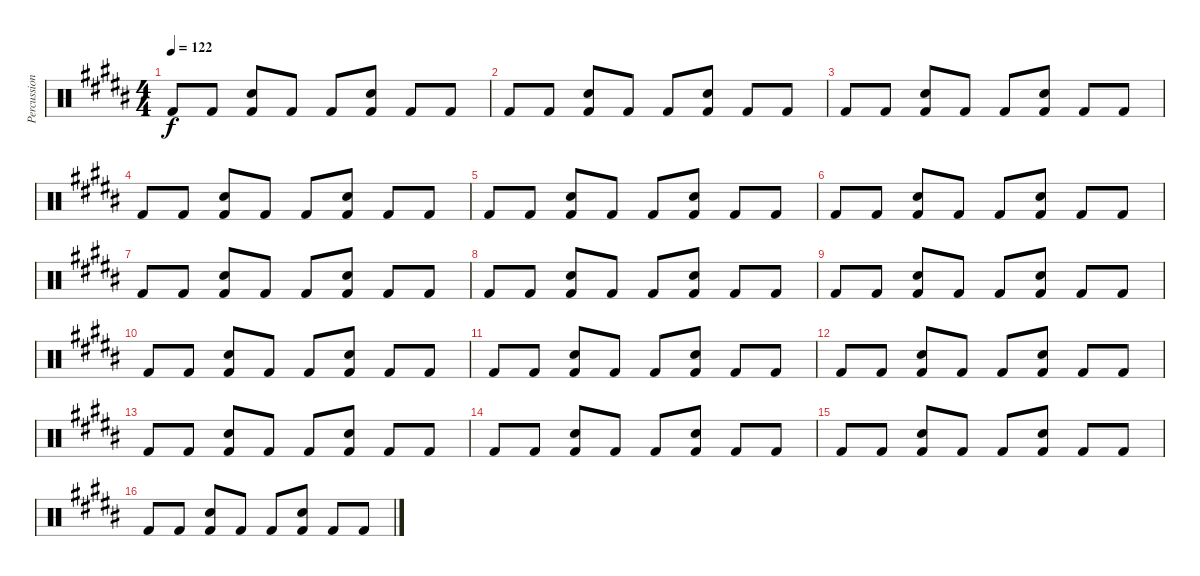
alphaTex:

\track ("Percussion" "Percussion") {instrument percussion}
\staff {score}
\articulation defaults
\ts (4 4)
\tempo 122
\clef neutral
\ks b "Kick (hit) 2".8{dy f} "Kick (hit) 2".8
("Kick (hit) 2" "Snare (hit) 2").8 "Kick (hit) 2".8 "Kick (hit) 2".8 ("Kick (hit) 2" "Snare (hit) 2").8 "Kick (hit) 2".8 "Kick (hit) 2".8 |
"Kick (hit) 2".8 "Kick (hit) 2".8 ("Kick (hit) 2" "Snare (hit) 2").8 "Kick (hit) 2".8 "Kick (hit) 2".8 ("Kick (hit) 2" "Snare (hit) 2").8 "Kick (hit) 2".8 "Kick (hit) 2".8 |
"Kick (hit) 2".8 "Kick (hit) 2".8 ("Kick (hit) 2" "Snare (hit) 2").8 "Kick (hit) 2".8 "Kick (hit) 2".8 ("Kick (hit) 2" "Snare (hit) 2").8 "Kick (hit) 2".8 "Kick (hit) 2".8 |
"Kick (hit) 2".8 "Kick (hit) 2".8 ("Kick (hit) 2" "Snare (hit) 2").8 "Kick (hit) 2".8 "Kick (hit) 2".8 ("Kick (hit) 2" "Snare (hit) 2").8 "Kick (hit) 2".8 "Kick (hit) 2".8 |
"Kick (hit) 2".8 "Kick (hit) 2".8 ("Kick (hit) 2" "Snare (hit) 2").8 "Kick (hit) 2".8 "Kick (hit) 2".8 ("Kick (hit) 2" "Snare (hit) 2").8 "Kick (hit) 2".8 "Kick (hit) 2".8 |
"Kick (hit) 2".8 "Kick (hit) 2".8 ("Kick (hit) 2" "Snare (hit) 2").8 "Kick (hit) 2".8 "Kick (hit) 2".8 ("Kick (hit) 2" "Snare (hit) 2").8 "Kick (hit) 2".8 "Kick (hit) 2".8 |
"Kick (hit) 2".8 "Kick (hit) 2".8 ("Kick (hit) 2" "Snare (hit) 2").8 "Kick (hit) 2".8 "Kick (hit) 2".8 ("Kick (hit) 2" "Snare (hit) 2").8 "Kick (hit) 2".8 "Kick (hit) 2".8 |
"Kick (hit) 2".8 "Kick (hit) 2".8 ("Kick (hit) 2" "Snare (hit) 2").8 "Kick (hit) 2".8 "Kick (hit) 2".8 ("Kick (hit) 2" "Snare (hit) 2").8 "Kick (hit) 2".8 "Kick (hit) 2".8 |
"Kick (hit) 2".8 "Kick (hit) 2".8 ("Kick (hit) 2" "Snare (hit) 2").8 "Kick (hit) 2".8 "Kick (hit) 2".8 ("Kick (hit) 2" "Snare (hit) 2").8 "Kick (hit) 2".8 "Kick (hit) 2".8 |
"Kick (hit) 2".8 "Kick (hit) 2".8 ("Kick (hit) 2" "Snare (hit) 2").8 "Kick (hit) 2".8 "Kick (hit) 2".8 ("Kick (hit) 2" "Snare (hit) 2").8 "Kick (hit) 2".8 "Kick (hit) 2".8 |
"Kick (hit) 2".8 "Kick (hit) 2".8 ("Kick (hit) 2" "Snare (hit) 2").8 "Kick (hit) 2".8 "Kick (hit) 2".8 ("Kick (hit) 2" "Snare (hit) 2").8 "Kick (hit) 2".8 "Kick (hit) 2".8 |
"Kick (hit) 2".8 "Kick (hit) 2".8 ("Kick (hit) 2" "Snare (hit) 2").8 "Kick (hit) 2".8 "Kick (hit) 2".8 ("Kick (hit) 2" "Snare (hit) 2").8 "Kick (hit) 2".8 "Kick (hit) 2".8 |
"Kick (hit) 2".8 "Kick (hit) 2".8 ("Kick (hit) 2" "Snare (hit) 2").8 "Kick (hit) 2".8 "Kick (hit) 2".8 ("Kick (hit) 2" "Snare (hit) 2").8 "Kick (hit) 2".8 "Kick (hit) 2".8 |
"Kick (hit) 2".8 "Kick (hit) 2".8 ("Kick (hit) 2" "Snare (hit) 2").8 "Kick (hit) 2".8 "Kick (hit) 2".8 ("Kick (hit) 2" "Snare (hit) 2").8 "Kick (hit) 2".8 "Kick (hit) 2".8 |
"Kick (hit) 2".8 "Kick (hit) 2".8 ("Kick (hit) 2" "Snare (hit) 2").8 "Kick (hit) 2".8 "Kick (hit) 2".8 ("Kick (hit) 2" "Snare (hit) 2").8 "Kick (hit) 2".8 "Kick (hit) 2".8 |
"Kick (hit) 2".8 "Kick (hit) 2".8 ("Kick (hit) 2" "Snare (hit) 2").8 "Kick (hit) 2".8 "Kick (hit) 2".8 ("Kick (hit) 2" "Snare (hit) 2").8 "Kick (hit) 2".8 "Kick (hit) 2".8
